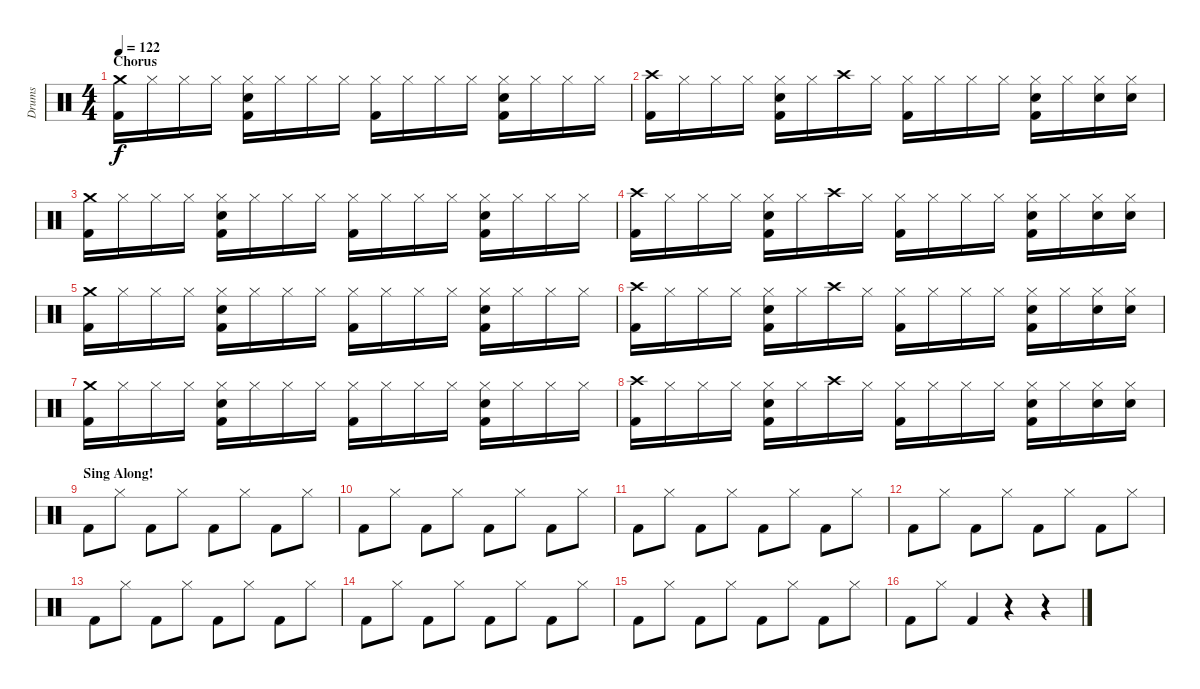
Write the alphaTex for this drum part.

\track ("Drums" "Drums") {instrument percussion}
\staff {score}
\articulation defaults
\ts (4 4)
\section ("" "Chorus")
\tempo 122
\clef neutral
\ks c
("Crash medium (hit)" "Kick (hit) 2").16{dy f} "Hi-Hat (closed)".16 "Hi-Hat (closed)".16 "Hi-Hat (closed)".16 ("Hi-Hat (closed)" "Electric Snare (hit)" "Kick (hit) 2").16 "Hi-Hat (closed)".16 "Hi-Hat (closed)".16 "Hi-Hat (closed)".16 ("Hi-Hat (closed)" "Kick (hit) 2").16 "Hi-Hat (closed)".16 "Hi-Hat (closed)".16 "Hi-Hat (closed)".16 ("Hi-Hat (closed)" "Electric Snare (hit)" "Kick (hit) 2").16 "Hi-Hat (closed)".16 "Hi-Hat (closed)".16 "Hi-Hat (closed)".16 |
("Crash high (hit)" "Kick (hit) 2").16{balance 1} "Hi-Hat (closed)".16{balance 8} "Hi-Hat (closed)".16 "Hi-Hat (closed)".16 ("Hi-Hat (closed)" "Electric Snare (hit)" "Kick (hit) 2").16 "Hi-Hat (closed)".16 "Crash high (hit)".16{balance 0} "Hi-Hat (closed)".16{balance 8} ("Hi-Hat (closed)" "Kick (hit) 2").16 "Hi-Hat (closed)".16 "Hi-Hat (closed)".16 "Hi-Hat (closed)".16 ("Hi-Hat (closed)" "Electric Snare (hit)" "Kick (hit) 2").16 "Hi-Hat (closed)".16 ("Hi-Hat (closed)" "Electric Snare (hit)").16 ("Hi-Hat (closed)" "Electric Snare (hit)").16 |
("Crash medium (hit)" "Kick (hit) 2").16 "Hi-Hat (closed)".16 "Hi-Hat (closed)".16 "Hi-Hat (closed)".16 ("Hi-Hat (closed)" "Electric Snare (hit)" "Kick (hit) 2").16 "Hi-Hat (closed)".16 "Hi-Hat (closed)".16 "Hi-Hat (closed)".16 ("Hi-Hat (closed)" "Kick (hit) 2").16 "Hi-Hat (closed)".16 "Hi-Hat (closed)".16 "Hi-Hat (closed)".16 ("Hi-Hat (closed)" "Electric Snare (hit)" "Kick (hit) 2").16 "Hi-Hat (closed)".16 "Hi-Hat (closed)".16 "Hi-Hat (closed)".16 |
("Crash high (hit)" "Kick (hit) 2").16{balance 1} "Hi-Hat (closed)".16{balance 8} "Hi-Hat (closed)".16 "Hi-Hat (closed)".16 ("Hi-Hat (closed)" "Electric Snare (hit)" "Kick (hit) 2").16 "Hi-Hat (closed)".16 "Crash high (hit)".16{balance 0} "Hi-Hat (closed)".16{balance 8} ("Hi-Hat (closed)" "Kick (hit) 2").16 "Hi-Hat (closed)".16 "Hi-Hat (closed)".16 "Hi-Hat (closed)".16 ("Hi-Hat (closed)" "Electric Snare (hit)" "Kick (hit) 2").16 "Hi-Hat (closed)".16 ("Hi-Hat (closed)" "Electric Snare (hit)").16 ("Hi-Hat (closed)" "Electric Snare (hit)").16 |
("Crash medium (hit)" "Kick (hit) 2").16 "Hi-Hat (closed)".16 "Hi-Hat (closed)".16 "Hi-Hat (closed)".16 ("Hi-Hat (closed)" "Electric Snare (hit)" "Kick (hit) 2").16 "Hi-Hat (closed)".16 "Hi-Hat (closed)".16 "Hi-Hat (closed)".16 ("Hi-Hat (closed)" "Kick (hit) 2").16 "Hi-Hat (closed)".16 "Hi-Hat (closed)".16 "Hi-Hat (closed)".16 ("Hi-Hat (closed)" "Electric Snare (hit)" "Kick (hit) 2").16 "Hi-Hat (closed)".16 "Hi-Hat (closed)".16 "Hi-Hat (closed)".16 |
("Crash high (hit)" "Kick (hit) 2").16{balance 1} "Hi-Hat (closed)".16{balance 8} "Hi-Hat (closed)".16 "Hi-Hat (closed)".16 ("Hi-Hat (closed)" "Electric Snare (hit)" "Kick (hit) 2").16 "Hi-Hat (closed)".16 "Crash high (hit)".16{balance 0} "Hi-Hat (closed)".16{balance 8} ("Hi-Hat (closed)" "Kick (hit) 2").16 "Hi-Hat (closed)".16 "Hi-Hat (closed)".16 "Hi-Hat (closed)".16 ("Hi-Hat (closed)" "Electric Snare (hit)" "Kick (hit) 2").16 "Hi-Hat (closed)".16 ("Hi-Hat (closed)" "Electric Snare (hit)").16 ("Hi-Hat (closed)" "Electric Snare (hit)").16 |
("Crash medium (hit)" "Kick (hit) 2").16 "Hi-Hat (closed)".16 "Hi-Hat (closed)".16 "Hi-Hat (closed)".16 ("Hi-Hat (closed)" "Electric Snare (hit)" "Kick (hit) 2").16 "Hi-Hat (closed)".16 "Hi-Hat (closed)".16 "Hi-Hat (closed)".16 ("Hi-Hat (closed)" "Kick (hit) 2").16 "Hi-Hat (closed)".16 "Hi-Hat (closed)".16 "Hi-Hat (closed)".16 ("Hi-Hat (closed)" "Electric Snare (hit)" "Kick (hit) 2").16 "Hi-Hat (closed)".16 "Hi-Hat (closed)".16 "Hi-Hat (closed)".16 |
("Crash high (hit)" "Kick (hit) 2").16{balance 1} "Hi-Hat (closed)".16{balance 8} "Hi-Hat (closed)".16 "Hi-Hat (closed)".16 ("Hi-Hat (closed)" "Electric Snare (hit)" "Kick (hit) 2").16 "Hi-Hat (closed)".16 "Crash high (hit)".16{balance 0} "Hi-Hat (closed)".16{balance 8} ("Hi-Hat (closed)" "Kick (hit) 2").16 "Hi-Hat (closed)".16 "Hi-Hat (closed)".16 "Hi-Hat (closed)".16 ("Hi-Hat (closed)" "Electric Snare (hit)" "Kick (hit) 2").16 "Hi-Hat (closed)".16 ("Hi-Hat (closed)" "Electric Snare (hit)").16 ("Hi-Hat (closed)" "Electric Snare (hit)").16 |
\section ("" "Sing Along!")
"Kick (hit) 2".8 "Hi-Hat (closed)".8 "Kick (hit) 2".8 "Hi-Hat (closed)".8 "Kick (hit) 2".8 "Hi-Hat (closed)".8 "Kick (hit) 2".8 "Hi-Hat (closed)".8 |
"Kick (hit) 2".8 "Hi-Hat (closed)".8 "Kick (hit) 2".8 "Hi-Hat (closed)".8 "Kick (hit) 2".8 "Hi-Hat (closed)".8 "Kick (hit) 2".8 "Hi-Hat (closed)".8 |
"Kick (hit) 2".8 "Hi-Hat (closed)".8 "Kick (hit) 2".8 "Hi-Hat (closed)".8 "Kick (hit) 2".8 "Hi-Hat (closed)".8 "Kick (hit) 2".8 "Hi-Hat (closed)".8 |
"Kick (hit) 2".8 "Hi-Hat (closed)".8 "Kick (hit) 2".8 "Hi-Hat (closed)".8 "Kick (hit) 2".8 "Hi-Hat (closed)".8 "Kick (hit) 2".8 "Hi-Hat (closed)".8 |
"Kick (hit) 2".8 "Hi-Hat (closed)".8 "Kick (hit) 2".8 "Hi-Hat (closed)".8 "Kick (hit) 2".8 "Hi-Hat (closed)".8 "Kick (hit) 2".8 "Hi-Hat (closed)".8 |
"Kick (hit) 2".8 "Hi-Hat (closed)".8 "Kick (hit) 2".8 "Hi-Hat (closed)".8 "Kick (hit) 2".8 "Hi-Hat (closed)".8 "Kick (hit) 2".8 "Hi-Hat (closed)".8 |
"Kick (hit) 2".8 "Hi-Hat (closed)".8 "Kick (hit) 2".8 "Hi-Hat (closed)".8 "Kick (hit) 2".8 "Hi-Hat (closed)".8 "Kick (hit) 2".8 "Hi-Hat (closed)".8 |
"Kick (hit) 2".8 "Hi-Hat (closed)".8 "Kick (hit) 2".4 r.4 r.4
